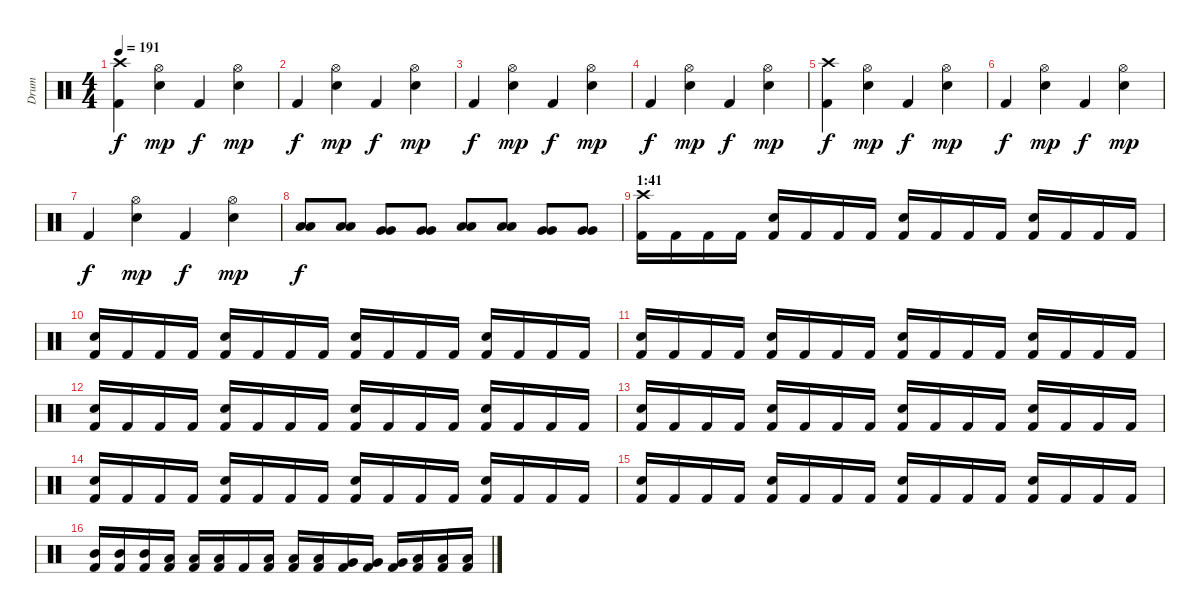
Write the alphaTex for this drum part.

\track ("Drum" "Drum") {instrument percussion}
\staff {score}
\articulation defaults
\ts (4 4)
\tempo 191
\clef neutral
\ks c
("Kick (hit) 2" "Crash high (hit)").4{dy f} ("Snare (hit) 2" "Hi-Hat (open)").4{dy mp} "Kick (hit) 2".4{dy f} ("Snare (hit) 2" "Hi-Hat (open)").4{dy mp} |
"Kick (hit) 2".4{dy f} ("Snare (hit) 2" "Hi-Hat (open)").4{dy mp} "Kick (hit) 2".4{dy f} ("Snare (hit) 2" "Hi-Hat (open)").4{dy mp} |
"Kick (hit) 2".4{dy f} ("Snare (hit) 2" "Hi-Hat (open)").4{dy mp} "Kick (hit) 2".4{dy f} ("Snare (hit) 2" "Hi-Hat (open)").4{dy mp} |
"Kick (hit) 2".4{dy f} ("Snare (hit) 2" "Hi-Hat (open)").4{dy mp} "Kick (hit) 2".4{dy f} ("Snare (hit) 2" "Hi-Hat (open)").4{dy mp} |
("Kick (hit) 2" "Crash high (hit)").4{dy f} ("Snare (hit) 2" "Hi-Hat (open)").4{dy mp} "Kick (hit) 2".4{dy f} ("Snare (hit) 2" "Hi-Hat (open)").4{dy mp} |
"Kick (hit) 2".4{dy f} ("Snare (hit) 2" "Hi-Hat (open)").4{dy mp} "Kick (hit) 2".4{dy f} ("Snare (hit) 2" "Hi-Hat (open)").4{dy mp} |
"Kick (hit) 2".4{dy f} ("Snare (hit) 2" "Hi-Hat (open)").4{dy mp} "Kick (hit) 2".4{dy f} ("Snare (hit) 2" "Hi-Hat (open)").4{dy mp} |
("Low Floor Tom (hit)" "Low Floor Tom (hit)").8{dy f} ("Low Floor Tom (hit)" "Low Floor Tom (hit)").8 ("Very Low Tom (hit)" "Very Low Tom (hit)").8 ("Very Low Tom (hit)" "Very Low Tom (hit)").8 ("Low Tom (hit)" "Low Tom (hit)").8 ("Low Tom (hit)" "Low Tom (hit)").8 ("Very Low Tom (hit)" "Very Low Tom (hit)").8 ("Very Low Tom (hit)" "Very Low Tom (hit)").8 |
\section ("" "1:41")
("Kick (hit) 2" "Crash high (hit)").16 "Kick (hit) 2".16 "Kick (hit) 2".16 "Kick (hit) 2".16 ("Kick (hit) 2" "Snare (hit) 2").16 "Kick (hit) 2".16 "Kick (hit) 2".16 "Kick (hit) 2".16 ("Kick (hit) 2" "Snare (hit) 2").16 "Kick (hit) 2".16 "Kick (hit) 2".16 "Kick (hit) 2".16 ("Kick (hit) 2" "Snare (hit) 2").16 "Kick (hit) 2".16 "Kick (hit) 2".16 "Kick (hit) 2".16 |
("Kick (hit) 2" "Snare (hit) 2").16 "Kick (hit) 2".16 "Kick (hit) 2".16 "Kick (hit) 2".16 ("Kick (hit) 2" "Snare (hit) 2").16 "Kick (hit) 2".16 "Kick (hit) 2".16 "Kick (hit) 2".16 ("Kick (hit) 2" "Snare (hit) 2").16 "Kick (hit) 2".16 "Kick (hit) 2".16 "Kick (hit) 2".16 ("Kick (hit) 2" "Snare (hit) 2").16 "Kick (hit) 2".16 "Kick (hit) 2".16 "Kick (hit) 2".16 |
("Kick (hit) 2" "Snare (hit) 2").16 "Kick (hit) 2".16 "Kick (hit) 2".16 "Kick (hit) 2".16 ("Kick (hit) 2" "Snare (hit) 2").16 "Kick (hit) 2".16 "Kick (hit) 2".16 "Kick (hit) 2".16 ("Kick (hit) 2" "Snare (hit) 2").16 "Kick (hit) 2".16 "Kick (hit) 2".16 "Kick (hit) 2".16 ("Kick (hit) 2" "Snare (hit) 2").16 "Kick (hit) 2".16 "Kick (hit) 2".16 "Kick (hit) 2".16 |
("Kick (hit) 2" "Snare (hit) 2").16 "Kick (hit) 2".16 "Kick (hit) 2".16 "Kick (hit) 2".16 ("Kick (hit) 2" "Snare (hit) 2").16 "Kick (hit) 2".16 "Kick (hit) 2".16 "Kick (hit) 2".16 ("Kick (hit) 2" "Snare (hit) 2").16 "Kick (hit) 2".16 "Kick (hit) 2".16 "Kick (hit) 2".16 ("Kick (hit) 2" "Snare (hit) 2").16 "Kick (hit) 2".16 "Kick (hit) 2".16 "Kick (hit) 2".16 |
("Kick (hit) 2" "Snare (hit) 2").16 "Kick (hit) 2".16 "Kick (hit) 2".16 "Kick (hit) 2".16 ("Kick (hit) 2" "Snare (hit) 2").16 "Kick (hit) 2".16 "Kick (hit) 2".16 "Kick (hit) 2".16 ("Kick (hit) 2" "Snare (hit) 2").16 "Kick (hit) 2".16 "Kick (hit) 2".16 "Kick (hit) 2".16 ("Kick (hit) 2" "Snare (hit) 2").16 "Kick (hit) 2".16 "Kick (hit) 2".16 "Kick (hit) 2".16 |
("Kick (hit) 2" "Snare (hit) 2").16 "Kick (hit) 2".16 "Kick (hit) 2".16 "Kick (hit) 2".16 ("Kick (hit) 2" "Snare (hit) 2").16 "Kick (hit) 2".16 "Kick (hit) 2".16 "Kick (hit) 2".16 ("Kick (hit) 2" "Snare (hit) 2").16 "Kick (hit) 2".16 "Kick (hit) 2".16 "Kick (hit) 2".16 ("Kick (hit) 2" "Snare (hit) 2").16 "Kick (hit) 2".16 "Kick (hit) 2".16 "Kick (hit) 2".16 |
("Kick (hit) 2" "Snare (hit) 2").16 "Kick (hit) 2".16 "Kick (hit) 2".16 "Kick (hit) 2".16 ("Kick (hit) 2" "Snare (hit) 2").16 "Kick (hit) 2".16 "Kick (hit) 2".16 "Kick (hit) 2".16 ("Kick (hit) 2" "Snare (hit) 2").16 "Kick (hit) 2".16 "Kick (hit) 2".16 "Kick (hit) 2".16 ("Kick (hit) 2" "Snare (hit) 2").16 "Kick (hit) 2".16 "Kick (hit) 2".16 "Kick (hit) 2".16 |
("Kick (hit) 2" "Mid Tom (hit)").16 ("Kick (hit) 2" "Mid Tom (hit)").16 ("Kick (hit) 2" "Mid Tom (hit)").16 ("Kick (hit) 2" "Low Tom (hit)").16 ("Kick (hit) 2" "Low Tom (hit)").16 ("Kick (hit) 2" "Low Tom (hit)").16 "Kick (hit) 2".16 ("Kick (hit) 2" "Low Tom (hit)").16 ("Kick (hit) 2" "Low Tom (hit)").16 ("Kick (hit) 2" "Low Tom (hit)").16 ("Kick (hit) 2" "Very Low Tom (hit)").16 ("Kick (hit) 2" "Very Low Tom (hit)").16 ("Kick (hit) 2" "Very Low Tom (hit)").16 ("Kick (hit) 2" "Low Floor Tom (hit)").16 ("Kick (hit) 2" "Low Floor Tom (hit)").16 ("Kick (hit) 2" "Low Floor Tom (hit)").16
